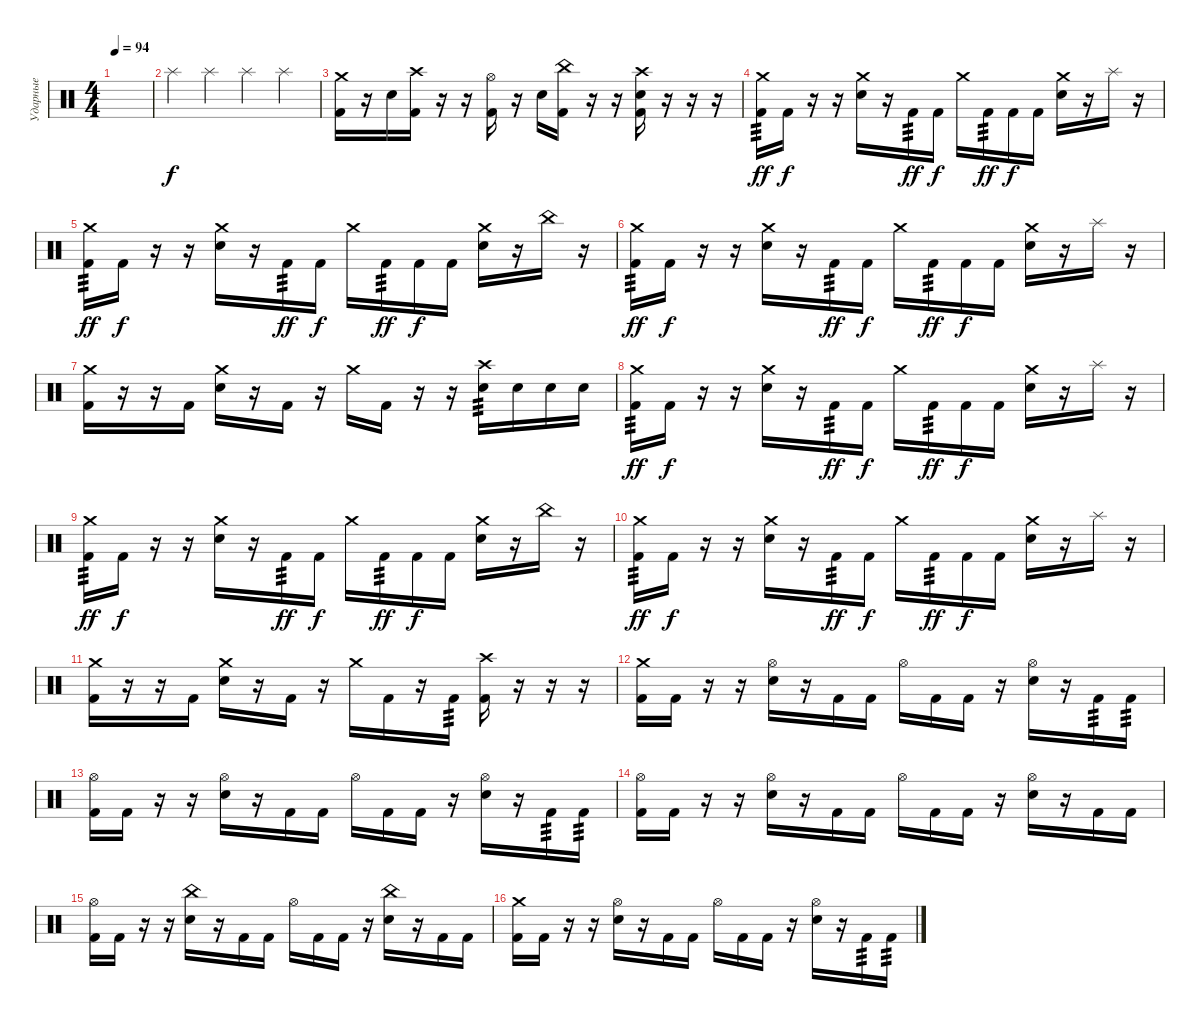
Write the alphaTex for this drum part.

\track ("Ударные" "Ударные") {instrument percussion}
\staff {score}
\articulation defaults
\ts (4 4)
\tempo 94
\clef neutral
\ks c
|
"Splash (hit)".4 "Splash (hit)".4 "Splash (hit)".4 "Splash (hit)".4 |
("Kick (hit) 2" "Crash medium (hit)").16 r.16 "Electric Snare (hit)".16 ("Kick (hit) 2" "Crash high (hit)").16 r.16 r.16 ("Kick (hit) 2" "Hi-Hat (open)").16 r.16 "Electric Snare (hit)".16 ("Kick (hit) 2" "China (hit)").16 r.16 r.16 ("Kick (hit) 2" "Electric Snare (hit)" "Crash high (hit)").16 r.16 r.16 r.16 |
("Crash medium (hit)" "Kick (hit) 2").16{tp 3 dy ff} "Kick (hit) 2".16{dy f} r.16 r.16 ("Crash medium (hit)" "Electric Snare (hit)").16 r.16 "Kick (hit) 2".16{tp 3 dy ff} "Kick (hit) 2".16{dy f} "Crash medium (hit)".16 "Kick (hit) 2".16{tp 3 dy ff} "Kick (hit) 2".16{dy f} "Kick (hit) 2".16 ("Crash medium (hit)" "Electric Snare (hit)").16 r.16 "Splash (hit)".16 r.16 |
("Crash medium (hit)" "Kick (hit) 2").16{tp 3 dy ff} "Kick (hit) 2".16{dy f} r.16 r.16 ("Crash medium (hit)" "Electric Snare (hit)").16 r.16 "Kick (hit) 2".16{tp 3 dy ff} "Kick (hit) 2".16{dy f} "Crash medium (hit)".16 "Kick (hit) 2".16{tp 3 dy ff} "Kick (hit) 2".16{dy f} "Kick (hit) 2".16 ("Crash medium (hit)" "Electric Snare (hit)").16 r.16 "China (hit)".16 r.16 |
("Crash medium (hit)" "Kick (hit) 2").16{tp 3 dy ff} "Kick (hit) 2".16{dy f} r.16 r.16 ("Crash medium (hit)" "Electric Snare (hit)").16 r.16 "Kick (hit) 2".16{tp 3 dy ff} "Kick (hit) 2".16{dy f} "Crash medium (hit)".16 "Kick (hit) 2".16{tp 3 dy ff} "Kick (hit) 2".16{dy f} "Kick (hit) 2".16 ("Crash medium (hit)" "Electric Snare (hit)").16 r.16 "Splash (hit)".16 r.16 |
("Crash medium (hit)" "Kick (hit) 2").16 r.16 r.16 "Kick (hit) 2".16 ("Crash medium (hit)" "Electric Snare (hit)").16 r.16 "Kick (hit) 2".16 r.16 "Crash medium (hit)".16 "Kick (hit) 2".16 r.16 r.16 ("Crash high (hit)" "Electric Snare (hit)").16{tp 3} "Electric Snare (hit)".16 "Electric Snare (hit)".16 "Electric Snare (hit)".16 |
("Crash medium (hit)" "Kick (hit) 2").16{tp 3 dy ff} "Kick (hit) 2".16{dy f} r.16 r.16 ("Crash medium (hit)" "Electric Snare (hit)").16 r.16 "Kick (hit) 2".16{tp 3 dy ff} "Kick (hit) 2".16{dy f} "Crash medium (hit)".16 "Kick (hit) 2".16{tp 3 dy ff} "Kick (hit) 2".16{dy f} "Kick (hit) 2".16 ("Crash medium (hit)" "Electric Snare (hit)").16 r.16 "Splash (hit)".16 r.16 |
("Crash medium (hit)" "Kick (hit) 2").16{tp 3 dy ff} "Kick (hit) 2".16{dy f} r.16 r.16 ("Crash medium (hit)" "Electric Snare (hit)").16 r.16 "Kick (hit) 2".16{tp 3 dy ff} "Kick (hit) 2".16{dy f} "Crash medium (hit)".16 "Kick (hit) 2".16{tp 3 dy ff} "Kick (hit) 2".16{dy f} "Kick (hit) 2".16 ("Crash medium (hit)" "Electric Snare (hit)").16 r.16 "China (hit)".16 r.16 |
("Crash medium (hit)" "Kick (hit) 2").16{tp 3 dy ff} "Kick (hit) 2".16{dy f} r.16 r.16 ("Crash medium (hit)" "Electric Snare (hit)").16 r.16 "Kick (hit) 2".16{tp 3 dy ff} "Kick (hit) 2".16{dy f} "Crash medium (hit)".16 "Kick (hit) 2".16{tp 3 dy ff} "Kick (hit) 2".16{dy f} "Kick (hit) 2".16 ("Crash medium (hit)" "Electric Snare (hit)").16 r.16 "Splash (hit)".16 r.16 |
("Crash medium (hit)" "Kick (hit) 2").16 r.16 r.16 "Kick (hit) 2".16 ("Crash medium (hit)" "Electric Snare (hit)").16 r.16 "Kick (hit) 2".16 r.16 "Crash medium (hit)".16 "Kick (hit) 2".16 r.16 "Kick (hit) 2".16{tp 3} ("Crash high (hit)" "Kick (hit) 2").16 r.16 r.16 r.16 |
("Crash medium (hit)" "Kick (hit) 2").16 "Kick (hit) 2".16 r.16 r.16 ("Hi-Hat (open)" "Electric Snare (hit)").16 r.16 "Kick (hit) 2".16 "Kick (hit) 2".16 "Hi-Hat (open)".16 "Kick (hit) 2".16 "Kick (hit) 2".16 r.16 ("Hi-Hat (open)" "Electric Snare (hit)").16 r.16 "Kick (hit) 2".16{tp 3} "Kick (hit) 2".16{tp 3} |
("Hi-Hat (open)" "Kick (hit) 2").16 "Kick (hit) 2".16 r.16 r.16 ("Hi-Hat (open)" "Electric Snare (hit)").16 r.16 "Kick (hit) 2".16 "Kick (hit) 2".16 "Hi-Hat (open)".16 "Kick (hit) 2".16 "Kick (hit) 2".16 r.16 ("Hi-Hat (open)" "Electric Snare (hit)").16 r.16 "Kick (hit) 2".16{tp 3} "Kick (hit) 2".16{tp 3} |
("Hi-Hat (open)" "Kick (hit) 2").16 "Kick (hit) 2".16 r.16 r.16 ("Hi-Hat (open)" "Electric Snare (hit)").16 r.16 "Kick (hit) 2".16 "Kick (hit) 2".16 "Hi-Hat (open)".16 "Kick (hit) 2".16 "Kick (hit) 2".16 r.16 ("Hi-Hat (open)" "Electric Snare (hit)").16 r.16 "Kick (hit) 2".16 "Kick (hit) 2".16 |
("Hi-Hat (open)" "Kick (hit) 2").16 "Kick (hit) 2".16 r.16 r.16 ("China (hit)" "Electric Snare (hit)").16 r.16 "Kick (hit) 2".16 "Kick (hit) 2".16 "Hi-Hat (open)".16 "Kick (hit) 2".16 "Kick (hit) 2".16 r.16 ("China (hit)" "Electric Snare (hit)").16 r.16 "Kick (hit) 2".16 "Kick (hit) 2".16 |
("Crash medium (hit)" "Kick (hit) 2").16 "Kick (hit) 2".16 r.16 r.16 ("Hi-Hat (open)" "Electric Snare (hit)").16 r.16 "Kick (hit) 2".16 "Kick (hit) 2".16 "Hi-Hat (open)".16 "Kick (hit) 2".16 "Kick (hit) 2".16 r.16 ("Hi-Hat (open)" "Electric Snare (hit)").16 r.16 "Kick (hit) 2".16{tp 3} "Kick (hit) 2".16{tp 3}
